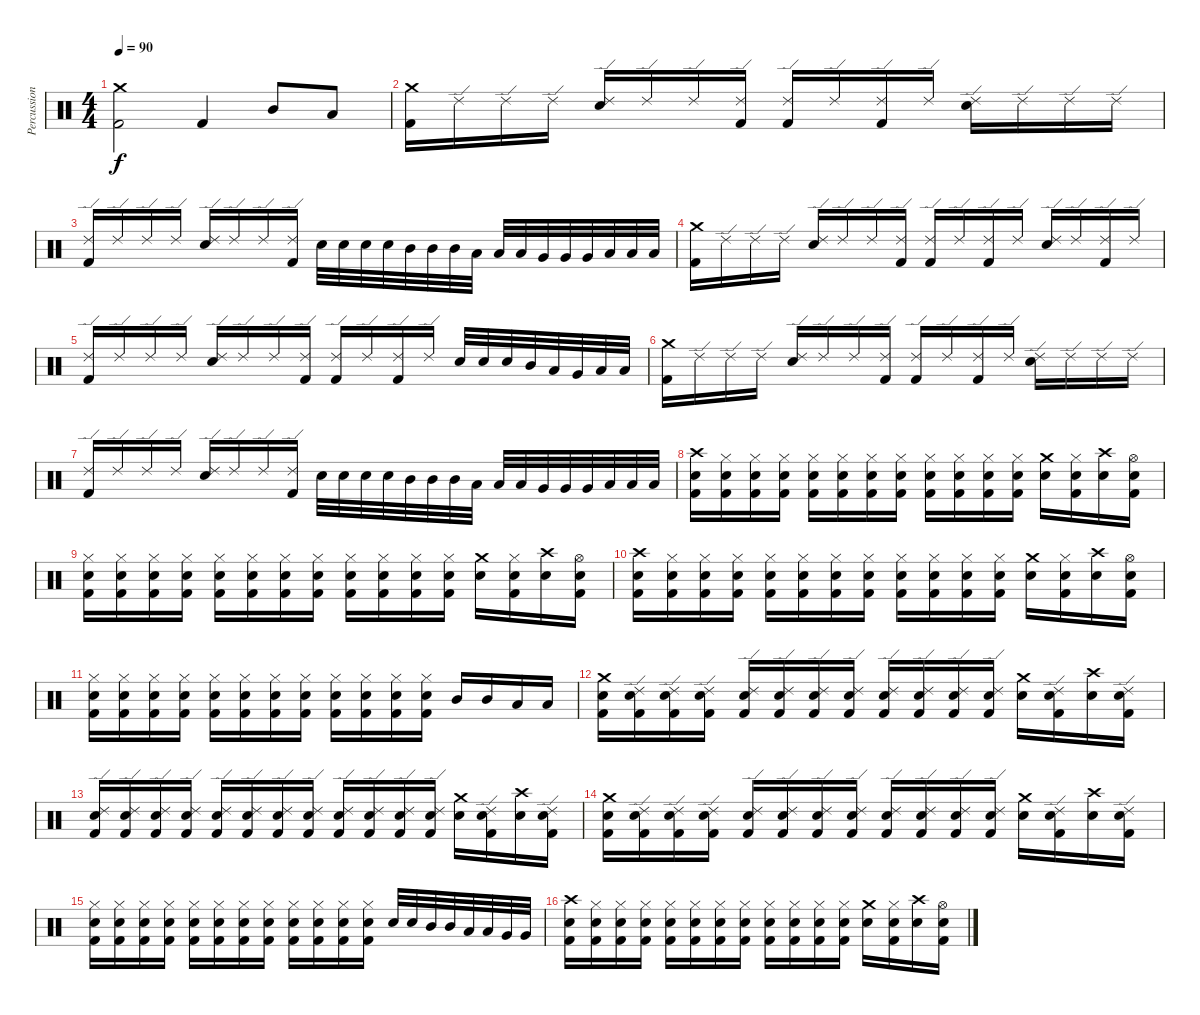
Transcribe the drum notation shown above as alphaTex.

\track ("Percussion" "Percussion") {instrument percussion}
\staff {score}
\articulation defaults
\ts (4 4)
\tempo 90
\clef neutral
\ks c
("Crash medium (hit)" "Kick (hit) 2").2{dy f} "Kick (hit) 2".4 "Mid Tom (hit)".8 "Low Tom (hit)".8 |
("Crash medium (hit)" "Kick (hit) 2").16 "Ride (edge) 2".16 "Ride (edge) 2".16 "Ride (edge) 2".16 ("Ride (edge) 2" "Snare (hit) 2").16 "Ride (edge) 2".16 "Ride (edge) 2".16 ("Ride (edge) 2" "Kick (hit) 2").16 ("Ride (edge) 2" "Kick (hit) 2").16 "Ride (edge) 2".16 ("Ride (edge) 2" "Kick (hit) 2").16 "Ride (edge) 2".16 ("Ride (edge) 2" "Snare (hit) 2").16 "Ride (edge) 2".16 "Ride (edge) 2".16 "Ride (edge) 2".16 |
("Ride (edge) 2" "Kick (hit) 2").16 "Ride (edge) 2".16 "Ride (edge) 2".16 "Ride (edge) 2".16 ("Ride (edge) 2" "Snare (hit) 2").16 "Ride (edge) 2".16 "Ride (edge) 2".16 ("Ride (edge) 2" "Kick (hit) 2").16 "Snare (hit) 2".32 "Snare (hit) 2".32 "Snare (hit) 2".32 "Snare (hit) 2".32 "Mid Tom (hit)".32 "Mid Tom (hit)".32 "Mid Tom (hit)".32 "Low Tom (hit)".32 "Low Tom (hit)".32 "Low Tom (hit)".32 "Very Low Tom (hit)".32 "Very Low Tom (hit)".32 "Very Low Tom (hit)".32 "Low Floor Tom (hit)".32 "Low Floor Tom (hit)".32 "Low Floor Tom (hit)".32 |
("Crash medium (hit)" "Kick (hit) 2").16 "Ride (edge) 2".16 "Ride (edge) 2".16 "Ride (edge) 2".16 ("Ride (edge) 2" "Snare (hit) 2").16 "Ride (edge) 2".16 "Ride (edge) 2".16 ("Ride (edge) 2" "Kick (hit) 2").16 ("Ride (edge) 2" "Kick (hit) 2").16 "Ride (edge) 2".16 ("Ride (edge) 2" "Kick (hit) 2").16 "Ride (edge) 2".16 ("Ride (edge) 2" "Snare (hit) 2").16 "Ride (edge) 2".16 ("Ride (edge) 2" "Kick (hit) 2").16 "Ride (edge) 2".16 |
("Ride (edge) 2" "Kick (hit) 2").16 "Ride (edge) 2".16 "Ride (edge) 2".16 "Ride (edge) 2".16 ("Ride (edge) 2" "Snare (hit) 2").16 "Ride (edge) 2".16 "Ride (edge) 2".16 ("Ride (edge) 2" "Kick (hit) 2").16 ("Ride (edge) 2" "Kick (hit) 2").16 "Ride (edge) 2".16 ("Ride (edge) 2" "Kick (hit) 2").16 "Ride (edge) 2".16 "Snare (hit) 2".32 "Snare (hit) 2".32 "Snare (hit) 2".32 "Mid Tom (hit)".32 "Low Tom (hit)".32 "Very Low Tom (hit)".32 "Low Floor Tom (hit)".32 "Low Floor Tom (hit)".32 |
("Crash medium (hit)" "Kick (hit) 2").16 "Ride (edge) 2".16 "Ride (edge) 2".16 "Ride (edge) 2".16 ("Ride (edge) 2" "Snare (hit) 2").16 "Ride (edge) 2".16 "Ride (edge) 2".16 ("Ride (edge) 2" "Kick (hit) 2").16 ("Ride (edge) 2" "Kick (hit) 2").16 "Ride (edge) 2".16 ("Ride (edge) 2" "Kick (hit) 2").16 "Ride (edge) 2".16 ("Ride (edge) 2" "Snare (hit) 2").16 "Ride (edge) 2".16 "Ride (edge) 2".16 "Ride (edge) 2".16 |
("Ride (edge) 2" "Kick (hit) 2").16 "Ride (edge) 2".16 "Ride (edge) 2".16 "Ride (edge) 2".16 ("Ride (edge) 2" "Snare (hit) 2").16 "Ride (edge) 2".16 "Ride (edge) 2".16 ("Ride (edge) 2" "Kick (hit) 2").16 "Snare (hit) 2".32 "Snare (hit) 2".32 "Snare (hit) 2".32 "Snare (hit) 2".32 "Mid Tom (hit)".32 "Mid Tom (hit)".32 "Mid Tom (hit)".32 "Low Tom (hit)".32 "Low Tom (hit)".32 "Low Tom (hit)".32 "Very Low Tom (hit)".32 "Very Low Tom (hit)".32 "Very Low Tom (hit)".32 "Low Floor Tom (hit)".32 "Low Floor Tom (hit)".32 "Low Floor Tom (hit)".32 |
("Crash high (hit)" "Snare (hit) 2" "Kick (hit) 2").16 ("Hi-Hat (closed)" "Snare (hit) 2" "Kick (hit) 2").16 ("Hi-Hat (closed)" "Snare (hit) 2" "Kick (hit) 2").16 ("Hi-Hat (closed)" "Snare (hit) 2" "Kick (hit) 2").16 ("Hi-Hat (closed)" "Snare (hit) 2" "Kick (hit) 2").16 ("Hi-Hat (closed)" "Snare (hit) 2" "Kick (hit) 2").16 ("Hi-Hat (closed)" "Snare (hit) 2" "Kick (hit) 2").16 ("Hi-Hat (closed)" "Snare (hit) 2" "Kick (hit) 2").16 ("Hi-Hat (closed)" "Snare (hit) 2" "Kick (hit) 2").16 ("Hi-Hat (closed)" "Snare (hit) 2" "Kick (hit) 2").16 ("Hi-Hat (closed)" "Snare (hit) 2" "Kick (hit) 2").16 ("Hi-Hat (closed)" "Snare (hit) 2" "Kick (hit) 2").16 ("Crash medium (hit)" "Snare (hit) 2").16 ("Hi-Hat (closed)" "Snare (hit) 2" "Kick (hit) 2").16 ("Crash high (hit)" "Snare (hit) 2").16 ("Hi-Hat (open)" "Snare (hit) 2" "Kick (hit) 2").16 |
("Hi-Hat (closed)" "Snare (hit) 2" "Kick (hit) 2").16 ("Hi-Hat (closed)" "Snare (hit) 2" "Kick (hit) 2").16 ("Hi-Hat (closed)" "Snare (hit) 2" "Kick (hit) 2").16 ("Hi-Hat (closed)" "Snare (hit) 2" "Kick (hit) 2").16 ("Hi-Hat (closed)" "Snare (hit) 2" "Kick (hit) 2").16 ("Hi-Hat (closed)" "Snare (hit) 2" "Kick (hit) 2").16 ("Hi-Hat (closed)" "Snare (hit) 2" "Kick (hit) 2").16 ("Hi-Hat (closed)" "Snare (hit) 2" "Kick (hit) 2").16 ("Hi-Hat (closed)" "Snare (hit) 2" "Kick (hit) 2").16 ("Hi-Hat (closed)" "Snare (hit) 2" "Kick (hit) 2").16 ("Hi-Hat (closed)" "Snare (hit) 2" "Kick (hit) 2").16 ("Hi-Hat (closed)" "Snare (hit) 2" "Kick (hit) 2").16 ("Crash medium (hit)" "Snare (hit) 2").16 ("Hi-Hat (closed)" "Snare (hit) 2" "Kick (hit) 2").16 ("Crash high (hit)" "Snare (hit) 2").16 ("Hi-Hat (open)" "Snare (hit) 2" "Kick (hit) 2").16 |
("Crash high (hit)" "Snare (hit) 2" "Kick (hit) 2").16 ("Hi-Hat (closed)" "Snare (hit) 2" "Kick (hit) 2").16 ("Hi-Hat (closed)" "Snare (hit) 2" "Kick (hit) 2").16 ("Hi-Hat (closed)" "Snare (hit) 2" "Kick (hit) 2").16 ("Hi-Hat (closed)" "Snare (hit) 2" "Kick (hit) 2").16 ("Hi-Hat (closed)" "Snare (hit) 2" "Kick (hit) 2").16 ("Hi-Hat (closed)" "Snare (hit) 2" "Kick (hit) 2").16 ("Hi-Hat (closed)" "Snare (hit) 2" "Kick (hit) 2").16 ("Hi-Hat (closed)" "Snare (hit) 2" "Kick (hit) 2").16 ("Hi-Hat (closed)" "Snare (hit) 2" "Kick (hit) 2").16 ("Hi-Hat (closed)" "Snare (hit) 2" "Kick (hit) 2").16 ("Hi-Hat (closed)" "Snare (hit) 2" "Kick (hit) 2").16 ("Crash medium (hit)" "Snare (hit) 2").16 ("Hi-Hat (closed)" "Snare (hit) 2" "Kick (hit) 2").16 ("Crash high (hit)" "Snare (hit) 2").16 ("Hi-Hat (open)" "Snare (hit) 2" "Kick (hit) 2").16 |
("Hi-Hat (closed)" "Snare (hit) 2" "Kick (hit) 2").16 ("Hi-Hat (closed)" "Snare (hit) 2" "Kick (hit) 2").16 ("Hi-Hat (closed)" "Snare (hit) 2" "Kick (hit) 2").16 ("Hi-Hat (closed)" "Snare (hit) 2" "Kick (hit) 2").16 ("Hi-Hat (closed)" "Snare (hit) 2" "Kick (hit) 2").16 ("Hi-Hat (closed)" "Snare (hit) 2" "Kick (hit) 2").16 ("Hi-Hat (closed)" "Snare (hit) 2" "Kick (hit) 2").16 ("Hi-Hat (closed)" "Snare (hit) 2" "Kick (hit) 2").16 ("Hi-Hat (closed)" "Snare (hit) 2" "Kick (hit) 2").16 ("Hi-Hat (closed)" "Snare (hit) 2" "Kick (hit) 2").16 ("Hi-Hat (closed)" "Snare (hit) 2" "Kick (hit) 2").16 ("Hi-Hat (closed)" "Snare (hit) 2" "Kick (hit) 2").16 "Mid Tom (hit)".16 "Mid Tom (hit)".16 "Low Tom (hit)".16 "Low Tom (hit)".16 |
("Crash medium (hit)" "Snare (hit) 2" "Kick (hit) 2").16 ("Ride (edge) 2" "Snare (hit) 2" "Kick (hit) 2").16 ("Ride (edge) 2" "Snare (hit) 2" "Kick (hit) 2").16 ("Ride (edge) 2" "Snare (hit) 2" "Kick (hit) 2").16 ("Ride (edge) 2" "Snare (hit) 2" "Kick (hit) 2").16 ("Ride (edge) 2" "Snare (hit) 2" "Kick (hit) 2").16 ("Ride (edge) 2" "Snare (hit) 2" "Kick (hit) 2").16 ("Ride (edge) 2" "Snare (hit) 2" "Kick (hit) 2").16 ("Ride (edge) 2" "Snare (hit) 2" "Kick (hit) 2").16 ("Ride (edge) 2" "Snare (hit) 2" "Kick (hit) 2").16 ("Ride (edge) 2" "Snare (hit) 2" "Kick (hit) 2").16 ("Ride (edge) 2" "Snare (hit) 2" "Kick (hit) 2").16 ("Crash medium (hit)" "Snare (hit) 2").16 ("Ride (edge) 2" "Snare (hit) 2" "Kick (hit) 2").16 ("Crash high (hit)" "Snare (hit) 2").16 ("Ride (edge) 2" "Snare (hit) 2" "Kick (hit) 2").16 |
("Ride (edge) 2" "Snare (hit) 2" "Kick (hit) 2").16 ("Ride (edge) 2" "Snare (hit) 2" "Kick (hit) 2").16 ("Ride (edge) 2" "Snare (hit) 2" "Kick (hit) 2").16 ("Ride (edge) 2" "Snare (hit) 2" "Kick (hit) 2").16 ("Ride (edge) 2" "Snare (hit) 2" "Kick (hit) 2").16 ("Ride (edge) 2" "Snare (hit) 2" "Kick (hit) 2").16 ("Ride (edge) 2" "Snare (hit) 2" "Kick (hit) 2").16 ("Ride (edge) 2" "Snare (hit) 2" "Kick (hit) 2").16 ("Ride (edge) 2" "Snare (hit) 2" "Kick (hit) 2").16 ("Ride (edge) 2" "Snare (hit) 2" "Kick (hit) 2").16 ("Ride (edge) 2" "Snare (hit) 2" "Kick (hit) 2").16 ("Ride (edge) 2" "Snare (hit) 2" "Kick (hit) 2").16 ("Crash medium (hit)" "Snare (hit) 2").16 ("Ride (edge) 2" "Snare (hit) 2" "Kick (hit) 2").16 ("Crash high (hit)" "Snare (hit) 2").16 ("Ride (edge) 2" "Snare (hit) 2" "Kick (hit) 2").16 |
("Crash medium (hit)" "Snare (hit) 2" "Kick (hit) 2").16 ("Ride (edge) 2" "Snare (hit) 2" "Kick (hit) 2").16 ("Ride (edge) 2" "Snare (hit) 2" "Kick (hit) 2").16 ("Ride (edge) 2" "Snare (hit) 2" "Kick (hit) 2").16 ("Ride (edge) 2" "Snare (hit) 2" "Kick (hit) 2").16 ("Ride (edge) 2" "Snare (hit) 2" "Kick (hit) 2").16 ("Ride (edge) 2" "Snare (hit) 2" "Kick (hit) 2").16 ("Ride (edge) 2" "Snare (hit) 2" "Kick (hit) 2").16 ("Ride (edge) 2" "Snare (hit) 2" "Kick (hit) 2").16 ("Ride (edge) 2" "Snare (hit) 2" "Kick (hit) 2").16 ("Ride (edge) 2" "Snare (hit) 2" "Kick (hit) 2").16 ("Ride (edge) 2" "Snare (hit) 2" "Kick (hit) 2").16 ("Crash medium (hit)" "Snare (hit) 2").16 ("Ride (edge) 2" "Snare (hit) 2" "Kick (hit) 2").16 ("Crash high (hit)" "Snare (hit) 2").16 ("Ride (edge) 2" "Snare (hit) 2" "Kick (hit) 2").16 |
("Hi-Hat (closed)" "Snare (hit) 2" "Kick (hit) 2").16 ("Hi-Hat (closed)" "Snare (hit) 2" "Kick (hit) 2").16 ("Hi-Hat (closed)" "Snare (hit) 2" "Kick (hit) 2").16 ("Hi-Hat (closed)" "Snare (hit) 2" "Kick (hit) 2").16 ("Hi-Hat (closed)" "Snare (hit) 2" "Kick (hit) 2").16 ("Hi-Hat (closed)" "Snare (hit) 2" "Kick (hit) 2").16 ("Hi-Hat (closed)" "Snare (hit) 2" "Kick (hit) 2").16 ("Hi-Hat (closed)" "Snare (hit) 2" "Kick (hit) 2").16 ("Hi-Hat (closed)" "Snare (hit) 2" "Kick (hit) 2").16 ("Hi-Hat (closed)" "Snare (hit) 2" "Kick (hit) 2").16 ("Hi-Hat (closed)" "Snare (hit) 2" "Kick (hit) 2").16 ("Hi-Hat (closed)" "Snare (hit) 2" "Kick (hit) 2").16 "Snare (hit) 2".32 "Snare (hit) 2".32 "Mid Tom (hit)".32 "Mid Tom (hit)".32 "Low Tom (hit)".32 "Low Tom (hit)".32 "Very Low Tom (hit)".32 "Very Low Tom (hit)".32 |
("Crash high (hit)" "Snare (hit) 2" "Kick (hit) 2").16 ("Hi-Hat (closed)" "Snare (hit) 2" "Kick (hit) 2").16 ("Hi-Hat (closed)" "Snare (hit) 2" "Kick (hit) 2").16 ("Hi-Hat (closed)" "Snare (hit) 2" "Kick (hit) 2").16 ("Hi-Hat (closed)" "Snare (hit) 2" "Kick (hit) 2").16 ("Hi-Hat (closed)" "Snare (hit) 2" "Kick (hit) 2").16 ("Hi-Hat (closed)" "Snare (hit) 2" "Kick (hit) 2").16 ("Hi-Hat (closed)" "Snare (hit) 2" "Kick (hit) 2").16 ("Hi-Hat (closed)" "Snare (hit) 2" "Kick (hit) 2").16 ("Hi-Hat (closed)" "Snare (hit) 2" "Kick (hit) 2").16 ("Hi-Hat (closed)" "Snare (hit) 2" "Kick (hit) 2").16 ("Hi-Hat (closed)" "Snare (hit) 2" "Kick (hit) 2").16 ("Crash medium (hit)" "Snare (hit) 2").16 ("Hi-Hat (closed)" "Snare (hit) 2" "Kick (hit) 2").16 ("Crash high (hit)" "Snare (hit) 2").16 ("Hi-Hat (open)" "Snare (hit) 2" "Kick (hit) 2").16
